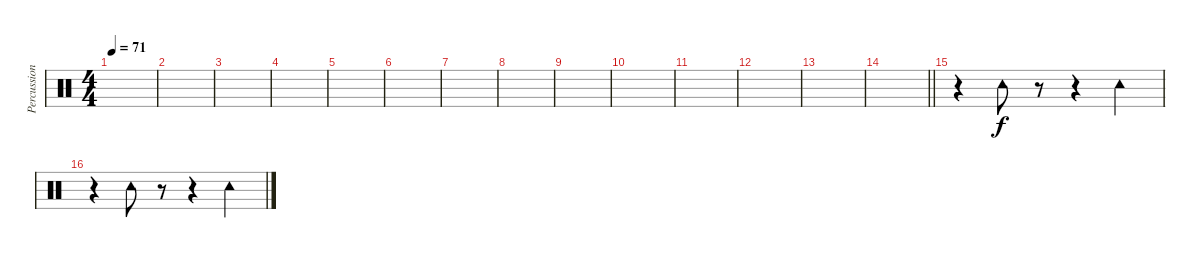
\track ("Percussion" "Percussion") {instrument percussion}
\staff {score}
\articulation defaults
\ts (4 4)
\tempo 71
\clef neutral
\ks c
|
|
|
|
|
|
|
|
|
|
|
|
|
\barLineRight lightlight
|
r.4 "Tambourine (hit)".8 r.8 r.4 "Tambourine (hit)".4 |
r.4 "Tambourine (hit)".8 r.8 r.4 "Tambourine (hit)".4
